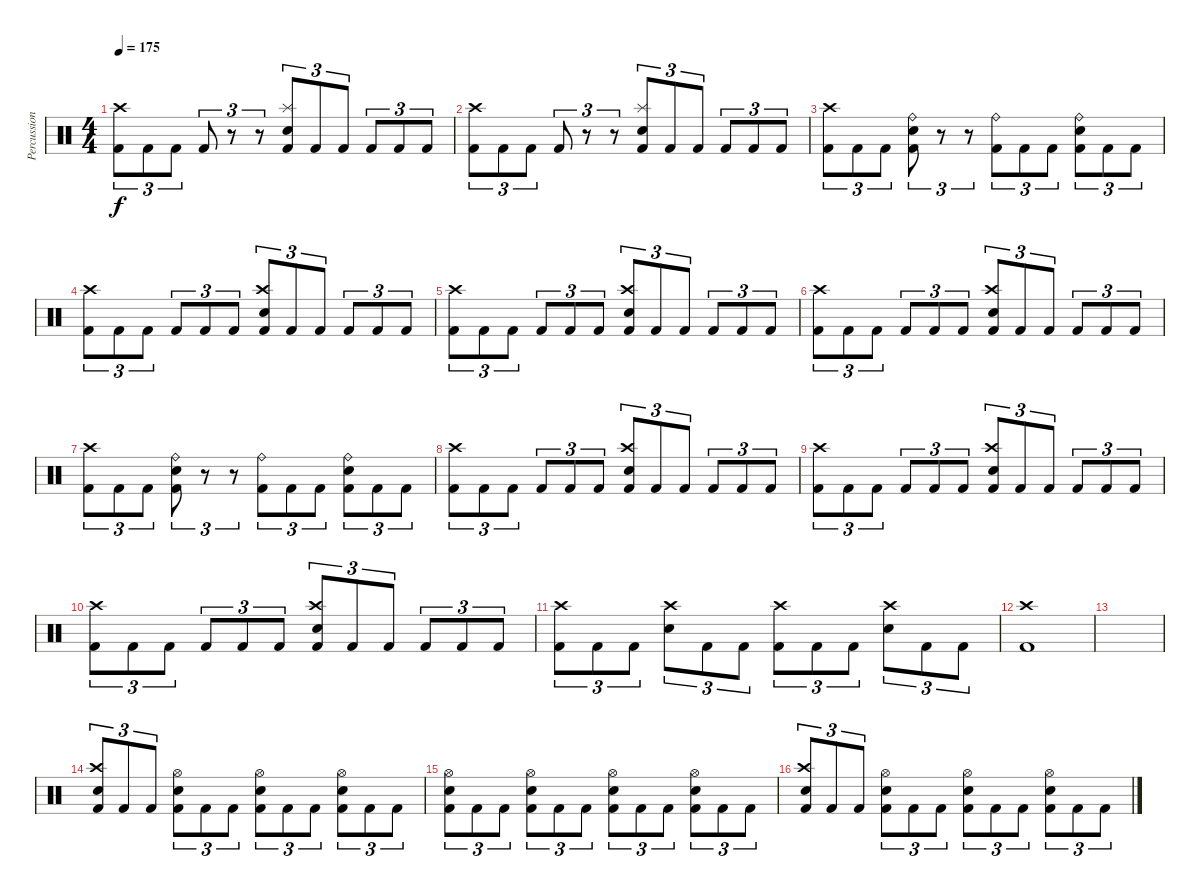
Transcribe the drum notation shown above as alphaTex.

\track ("Percussion" "Percussion") {instrument percussion}
\staff {score}
\articulation defaults
\ts (4 4)
\tempo 175
\clef neutral
\ks c
("Kick (hit) 2" "Crash high (hit)").8{tu (3 2) dy f} "Kick (hit) 2".8{tu (3 2)} "Kick (hit) 2".8{tu (3 2)} "Kick (hit) 2".8{tu (3 2)} r.8{tu (3 2)} r.8{tu (3 2)} ("Splash (hit)" "Kick (hit) 2" "Electric Snare (hit)").8{tu (3 2)} "Kick (hit) 2".8{tu (3 2)} "Kick (hit) 2".8{tu (3 2)} "Kick (hit) 2".8{tu (3 2)} "Kick (hit) 2".8{tu (3 2)} "Kick (hit) 2".8{tu (3 2)} |
("Kick (hit) 2" "Crash high (hit)").8{tu (3 2)} "Kick (hit) 2".8{tu (3 2)} "Kick (hit) 2".8{tu (3 2)} "Kick (hit) 2".8{tu (3 2)} r.8{tu (3 2)} r.8{tu (3 2)} ("Splash (hit)" "Kick (hit) 2" "Electric Snare (hit)").8{tu (3 2)} "Kick (hit) 2".8{tu (3 2)} "Kick (hit) 2".8{tu (3 2)} "Kick (hit) 2".8{tu (3 2)} "Kick (hit) 2".8{tu (3 2)} "Kick (hit) 2".8{tu (3 2)} |
("Kick (hit) 2" "Crash high (hit)").8{tu (3 2)} "Kick (hit) 2".8{tu (3 2)} "Kick (hit) 2".8{tu (3 2)} ("Ride (bell)" "Electric Snare (hit)" "Kick (hit) 2").8{tu (3 2)} r.8{tu (3 2)} r.8{tu (3 2)} ("Ride (bell)" "Kick (hit) 2").8{tu (3 2)} "Kick (hit) 2".8{tu (3 2)} "Kick (hit) 2".8{tu (3 2)} ("Ride (bell)" "Electric Snare (hit)" "Kick (hit) 2").8{tu (3 2)} "Kick (hit) 2".8{tu (3 2)} "Kick (hit) 2".8{tu (3 2)} |
("Kick (hit) 2" "Crash high (hit)").8{tu (3 2)} "Kick (hit) 2".8{tu (3 2)} "Kick (hit) 2".8{tu (3 2)} "Kick (hit) 2".8{tu (3 2)} "Kick (hit) 2".8{tu (3 2)} "Kick (hit) 2".8{tu (3 2)} ("Crash high (hit)" "Kick (hit) 2" "Electric Snare (hit)").8{tu (3 2)} "Kick (hit) 2".8{tu (3 2)} "Kick (hit) 2".8{tu (3 2)} "Kick (hit) 2".8{tu (3 2)} "Kick (hit) 2".8{tu (3 2)} "Kick (hit) 2".8{tu (3 2)} |
("Kick (hit) 2" "Crash high (hit)").8{tu (3 2)} "Kick (hit) 2".8{tu (3 2)} "Kick (hit) 2".8{tu (3 2)} "Kick (hit) 2".8{tu (3 2)} "Kick (hit) 2".8{tu (3 2)} "Kick (hit) 2".8{tu (3 2)} ("Crash high (hit)" "Kick (hit) 2" "Electric Snare (hit)").8{tu (3 2)} "Kick (hit) 2".8{tu (3 2)} "Kick (hit) 2".8{tu (3 2)} "Kick (hit) 2".8{tu (3 2)} "Kick (hit) 2".8{tu (3 2)} "Kick (hit) 2".8{tu (3 2)} |
("Kick (hit) 2" "Crash high (hit)").8{tu (3 2)} "Kick (hit) 2".8{tu (3 2)} "Kick (hit) 2".8{tu (3 2)} "Kick (hit) 2".8{tu (3 2)} "Kick (hit) 2".8{tu (3 2)} "Kick (hit) 2".8{tu (3 2)} ("Crash high (hit)" "Kick (hit) 2" "Electric Snare (hit)").8{tu (3 2)} "Kick (hit) 2".8{tu (3 2)} "Kick (hit) 2".8{tu (3 2)} "Kick (hit) 2".8{tu (3 2)} "Kick (hit) 2".8{tu (3 2)} "Kick (hit) 2".8{tu (3 2)} |
("Kick (hit) 2" "Crash high (hit)").8{tu (3 2)} "Kick (hit) 2".8{tu (3 2)} "Kick (hit) 2".8{tu (3 2)} ("Ride (bell)" "Electric Snare (hit)" "Kick (hit) 2").8{tu (3 2)} r.8{tu (3 2)} r.8{tu (3 2)} ("Ride (bell)" "Kick (hit) 2").8{tu (3 2)} "Kick (hit) 2".8{tu (3 2)} "Kick (hit) 2".8{tu (3 2)} ("Ride (bell)" "Electric Snare (hit)" "Kick (hit) 2").8{tu (3 2)} "Kick (hit) 2".8{tu (3 2)} "Kick (hit) 2".8{tu (3 2)} |
("Kick (hit) 2" "Crash high (hit)").8{tu (3 2)} "Kick (hit) 2".8{tu (3 2)} "Kick (hit) 2".8{tu (3 2)} "Kick (hit) 2".8{tu (3 2)} "Kick (hit) 2".8{tu (3 2)} "Kick (hit) 2".8{tu (3 2)} ("Crash high (hit)" "Kick (hit) 2" "Electric Snare (hit)").8{tu (3 2)} "Kick (hit) 2".8{tu (3 2)} "Kick (hit) 2".8{tu (3 2)} "Kick (hit) 2".8{tu (3 2)} "Kick (hit) 2".8{tu (3 2)} "Kick (hit) 2".8{tu (3 2)} |
("Kick (hit) 2" "Crash high (hit)").8{tu (3 2)} "Kick (hit) 2".8{tu (3 2)} "Kick (hit) 2".8{tu (3 2)} "Kick (hit) 2".8{tu (3 2)} "Kick (hit) 2".8{tu (3 2)} "Kick (hit) 2".8{tu (3 2)} ("Crash high (hit)" "Kick (hit) 2" "Electric Snare (hit)").8{tu (3 2)} "Kick (hit) 2".8{tu (3 2)} "Kick (hit) 2".8{tu (3 2)} "Kick (hit) 2".8{tu (3 2)} "Kick (hit) 2".8{tu (3 2)} "Kick (hit) 2".8{tu (3 2)} |
("Kick (hit) 2" "Crash high (hit)").8{tu (3 2)} "Kick (hit) 2".8{tu (3 2)} "Kick (hit) 2".8{tu (3 2)} "Kick (hit) 2".8{tu (3 2)} "Kick (hit) 2".8{tu (3 2)} "Kick (hit) 2".8{tu (3 2)} ("Crash high (hit)" "Kick (hit) 2" "Electric Snare (hit)").8{tu (3 2)} "Kick (hit) 2".8{tu (3 2)} "Kick (hit) 2".8{tu (3 2)} "Kick (hit) 2".8{tu (3 2)} "Kick (hit) 2".8{tu (3 2)} "Kick (hit) 2".8{tu (3 2)} |
("Kick (hit) 2" "Crash high (hit)").8{tu (3 2)} "Kick (hit) 2".8{tu (3 2)} "Kick (hit) 2".8{tu (3 2)} ("Crash high (hit)" "Electric Snare (hit)").8{tu (3 2)} "Kick (hit) 2".8{tu (3 2)} "Kick (hit) 2".8{tu (3 2)} ("Crash high (hit)" "Kick (hit) 2").8{tu (3 2)} "Kick (hit) 2".8{tu (3 2)} "Kick (hit) 2".8{tu (3 2)} ("Crash high (hit)" "Electric Snare (hit)").8{tu (3 2)} "Kick (hit) 2".8{tu (3 2)} "Kick (hit) 2".8{tu (3 2)} |
("Crash high (hit)" "Kick (hit) 2").1 |
|
("Kick (hit) 2" "Crash high (hit)" "Electric Snare (hit)").8{tu (3 2)} "Kick (hit) 2".8{tu (3 2)} "Kick (hit) 2".8{tu (3 2)} ("Kick (hit) 2" "Hi-Hat (open)" "Electric Snare (hit)").8{tu (3 2)} "Kick (hit) 2".8{tu (3 2)} "Kick (hit) 2".8{tu (3 2)} ("Kick (hit) 2" "Hi-Hat (open)" "Electric Snare (hit)").8{tu (3 2)} "Kick (hit) 2".8{tu (3 2)} "Kick (hit) 2".8{tu (3 2)} ("Kick (hit) 2" "Hi-Hat (open)" "Electric Snare (hit)").8{tu (3 2)} "Kick (hit) 2".8{tu (3 2)} "Kick (hit) 2".8{tu (3 2)} |
("Kick (hit) 2" "Hi-Hat (open)" "Electric Snare (hit)").8{tu (3 2)} "Kick (hit) 2".8{tu (3 2)} "Kick (hit) 2".8{tu (3 2)} ("Kick (hit) 2" "Hi-Hat (open)" "Electric Snare (hit)").8{tu (3 2)} "Kick (hit) 2".8{tu (3 2)} "Kick (hit) 2".8{tu (3 2)} ("Kick (hit) 2" "Hi-Hat (open)" "Electric Snare (hit)").8{tu (3 2)} "Kick (hit) 2".8{tu (3 2)} "Kick (hit) 2".8{tu (3 2)} ("Kick (hit) 2" "Hi-Hat (open)" "Electric Snare (hit)").8{tu (3 2)} "Kick (hit) 2".8{tu (3 2)} "Kick (hit) 2".8{tu (3 2)} |
("Kick (hit) 2" "Crash high (hit)" "Electric Snare (hit)").8{tu (3 2)} "Kick (hit) 2".8{tu (3 2)} "Kick (hit) 2".8{tu (3 2)} ("Kick (hit) 2" "Hi-Hat (open)" "Electric Snare (hit)").8{tu (3 2)} "Kick (hit) 2".8{tu (3 2)} "Kick (hit) 2".8{tu (3 2)} ("Kick (hit) 2" "Hi-Hat (open)" "Electric Snare (hit)").8{tu (3 2)} "Kick (hit) 2".8{tu (3 2)} "Kick (hit) 2".8{tu (3 2)} ("Kick (hit) 2" "Hi-Hat (open)" "Electric Snare (hit)").8{tu (3 2)} "Kick (hit) 2".8{tu (3 2)} "Kick (hit) 2".8{tu (3 2)}
